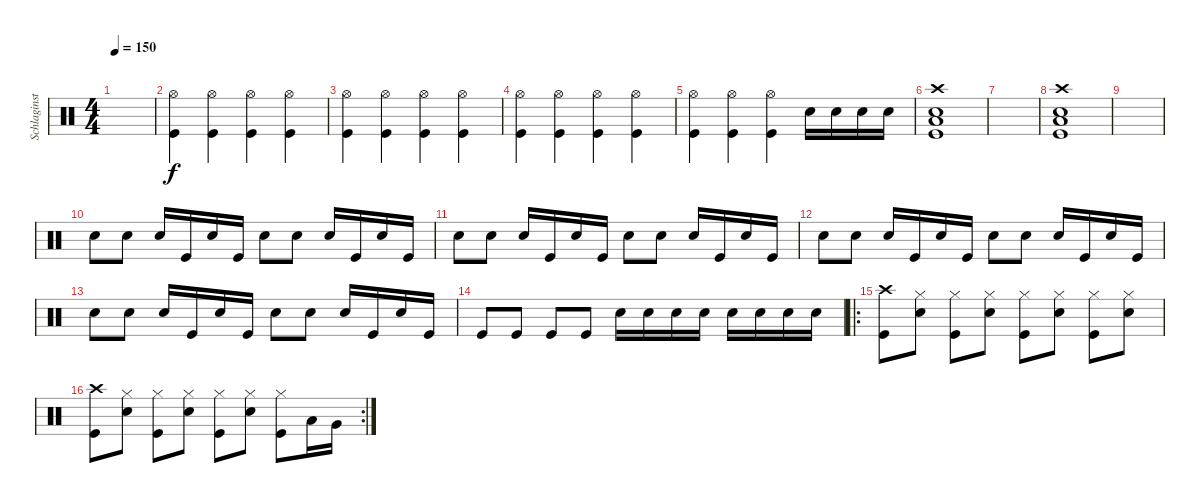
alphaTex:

\track ("Schlaginstrumente - Auswahl" "Schlaginst") {instrument percussion}
\staff {score}
\articulation defaults
\ts (4 4)
\tempo 150
\clef neutral
\ks c
|
("Hi-Hat (open)" "Kick (hit)").4 ("Hi-Hat (open)" "Kick (hit)").4 ("Hi-Hat (open)" "Kick (hit)").4 ("Hi-Hat (open)" "Kick (hit)").4 |
("Hi-Hat (open)" "Kick (hit)").4 ("Hi-Hat (open)" "Kick (hit)").4 ("Hi-Hat (open)" "Kick (hit)").4 ("Hi-Hat (open)" "Kick (hit)").4 |
("Hi-Hat (open)" "Kick (hit)").4 ("Hi-Hat (open)" "Kick (hit)").4 ("Hi-Hat (open)" "Kick (hit)").4 ("Hi-Hat (open)" "Kick (hit)").4 |
("Hi-Hat (open)" "Kick (hit)").4 ("Hi-Hat (open)" "Kick (hit)").4 ("Hi-Hat (open)" "Kick (hit)").4 "Electric Snare (hit)".16 "Electric Snare (hit)".16 "Electric Snare (hit)".16 "Electric Snare (hit)".16 |
("Crash high (hit)" "Low Floor Tom (hit)" "Electric Snare (hit)" "Kick (hit)").1 |
|
("Crash high (hit)" "Low Floor Tom (hit)" "Electric Snare (hit)" "Kick (hit)").1 |
|
"Electric Snare (hit)".8 "Electric Snare (hit)".8 "Electric Snare (hit)".16 "Kick (hit)".16 "Electric Snare (hit)".16 "Kick (hit)".16 "Electric Snare (hit)".8 "Electric Snare (hit)".8 "Electric Snare (hit)".16 "Kick (hit)".16 "Electric Snare (hit)".16 "Kick (hit)".16 |
"Electric Snare (hit)".8 "Electric Snare (hit)".8 "Electric Snare (hit)".16 "Kick (hit)".16 "Electric Snare (hit)".16 "Kick (hit)".16 "Electric Snare (hit)".8 "Electric Snare (hit)".8 "Electric Snare (hit)".16 "Kick (hit)".16 "Electric Snare (hit)".16 "Kick (hit)".16 |
"Electric Snare (hit)".8 "Electric Snare (hit)".8 "Electric Snare (hit)".16 "Kick (hit)".16 "Electric Snare (hit)".16 "Kick (hit)".16 "Electric Snare (hit)".8 "Electric Snare (hit)".8 "Electric Snare (hit)".16 "Kick (hit)".16 "Electric Snare (hit)".16 "Kick (hit)".16 |
"Electric Snare (hit)".8 "Electric Snare (hit)".8 "Electric Snare (hit)".16 "Kick (hit)".16 "Electric Snare (hit)".16 "Kick (hit)".16 "Electric Snare (hit)".8 "Electric Snare (hit)".8 "Electric Snare (hit)".16 "Kick (hit)".16 "Electric Snare (hit)".16 "Kick (hit)".16 |
"Kick (hit)".8 "Kick (hit)".8 "Kick (hit)".8 "Kick (hit)".8 "Electric Snare (hit)".16 "Electric Snare (hit)".16 "Electric Snare (hit)".16 "Electric Snare (hit)".16 "Electric Snare (hit)".16 "Electric Snare (hit)".16 "Electric Snare (hit)".16 "Electric Snare (hit)".16 |
\ro
("Crash high (hit)" "Kick (hit)").8 ("Hi-Hat (closed)" "Electric Snare (hit)").8 ("Hi-Hat (closed)" "Kick (hit)").8 ("Hi-Hat (closed)" "Electric Snare (hit)").8 ("Hi-Hat (closed)" "Kick (hit)").8 ("Hi-Hat (closed)" "Electric Snare (hit)").8 ("Hi-Hat (closed)" "Kick (hit)").8 ("Hi-Hat (closed)" "Electric Snare (hit)").8 |
\rc 2
("Crash high (hit)" "Kick (hit)").8 ("Hi-Hat (closed)" "Electric Snare (hit)").8 ("Hi-Hat (closed)" "Kick (hit)").8 ("Hi-Hat (closed)" "Electric Snare (hit)").8 ("Hi-Hat (closed)" "Kick (hit)").8 ("Hi-Hat (closed)" "Electric Snare (hit)").8 ("Hi-Hat (closed)" "Kick (hit)").8 "Low Tom (hit)".16 "Very Low Tom (hit)".16
